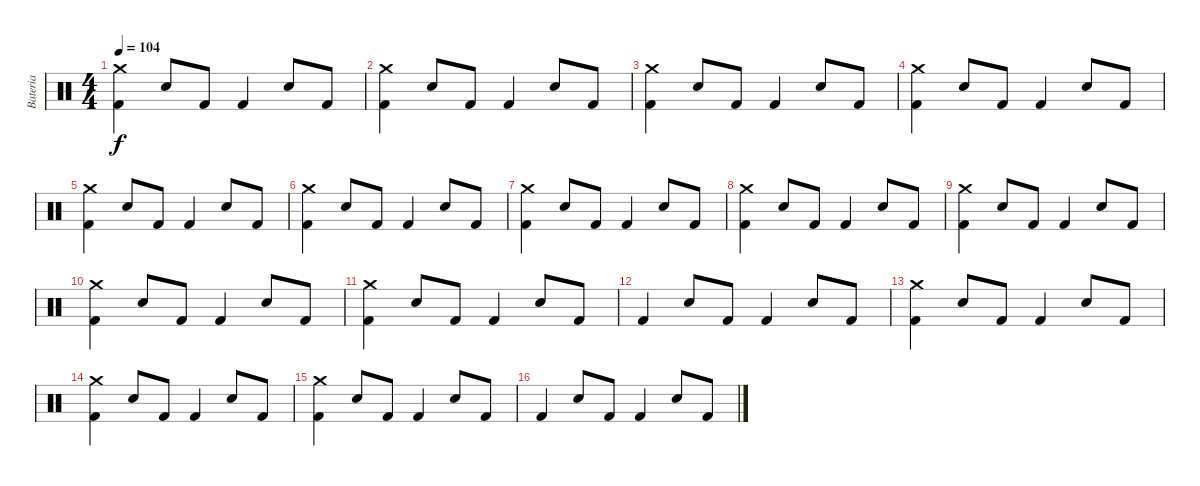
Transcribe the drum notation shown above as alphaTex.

\track ("Bateria" "Bateria") {instrument percussion}
\staff {score}
\articulation defaults
\ts (4 4)
\tempo 104
\clef neutral
\ks c
("Crash medium (hit)" "Kick (hit) 2").4{dy f} "Snare (hit) 2".8 "Kick (hit) 2".8 "Kick (hit) 2".4 "Snare (hit) 2".8 "Kick (hit) 2".8 |
("Crash medium (hit)" "Kick (hit) 2").4 "Snare (hit) 2".8 "Kick (hit) 2".8 "Kick (hit) 2".4 "Snare (hit) 2".8 "Kick (hit) 2".8 |
("Crash medium (hit)" "Kick (hit) 2").4 "Snare (hit) 2".8 "Kick (hit) 2".8 "Kick (hit) 2".4 "Snare (hit) 2".8 "Kick (hit) 2".8 |
("Crash medium (hit)" "Kick (hit) 2").4 "Snare (hit) 2".8 "Kick (hit) 2".8 "Kick (hit) 2".4 "Snare (hit) 2".8 "Kick (hit) 2".8 |
("Crash medium (hit)" "Kick (hit) 2").4 "Snare (hit) 2".8 "Kick (hit) 2".8 "Kick (hit) 2".4 "Snare (hit) 2".8 "Kick (hit) 2".8 |
("Crash medium (hit)" "Kick (hit) 2").4 "Snare (hit) 2".8 "Kick (hit) 2".8 "Kick (hit) 2".4 "Snare (hit) 2".8 "Kick (hit) 2".8 |
("Crash medium (hit)" "Kick (hit) 2").4 "Snare (hit) 2".8 "Kick (hit) 2".8 "Kick (hit) 2".4 "Snare (hit) 2".8 "Kick (hit) 2".8 |
("Crash medium (hit)" "Kick (hit) 2").4 "Snare (hit) 2".8 "Kick (hit) 2".8 "Kick (hit) 2".4 "Snare (hit) 2".8 "Kick (hit) 2".8 |
("Crash medium (hit)" "Kick (hit) 2").4 "Snare (hit) 2".8 "Kick (hit) 2".8 "Kick (hit) 2".4 "Snare (hit) 2".8 "Kick (hit) 2".8 |
("Crash medium (hit)" "Kick (hit) 2").4 "Snare (hit) 2".8 "Kick (hit) 2".8 "Kick (hit) 2".4 "Snare (hit) 2".8 "Kick (hit) 2".8 |
("Crash medium (hit)" "Kick (hit) 2").4 "Snare (hit) 2".8 "Kick (hit) 2".8 "Kick (hit) 2".4 "Snare (hit) 2".8 "Kick (hit) 2".8 |
"Kick (hit) 2".4 "Snare (hit) 2".8 "Kick (hit) 2".8 "Kick (hit) 2".4 "Snare (hit) 2".8 "Kick (hit) 2".8 |
("Crash medium (hit)" "Kick (hit) 2").4 "Snare (hit) 2".8 "Kick (hit) 2".8 "Kick (hit) 2".4 "Snare (hit) 2".8 "Kick (hit) 2".8 |
("Crash medium (hit)" "Kick (hit) 2").4 "Snare (hit) 2".8 "Kick (hit) 2".8 "Kick (hit) 2".4 "Snare (hit) 2".8 "Kick (hit) 2".8 |
("Crash medium (hit)" "Kick (hit) 2").4 "Snare (hit) 2".8 "Kick (hit) 2".8 "Kick (hit) 2".4 "Snare (hit) 2".8 "Kick (hit) 2".8 |
"Kick (hit) 2".4 "Snare (hit) 2".8 "Kick (hit) 2".8 "Kick (hit) 2".4 "Snare (hit) 2".8 "Kick (hit) 2".8
